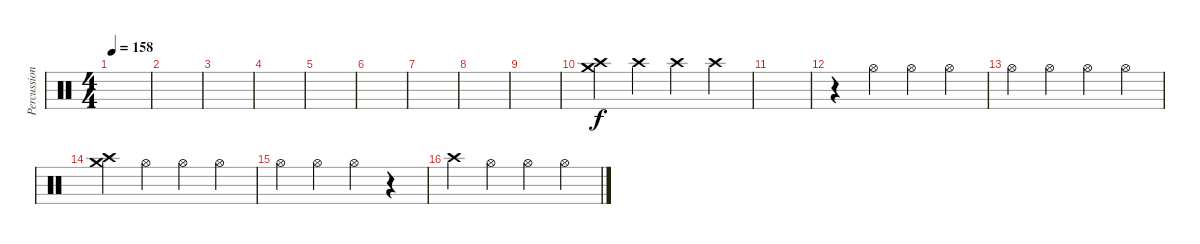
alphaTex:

\track ("Percussion2" "Percussion") {instrument percussion}
\staff {score}
\articulation defaults
\ts (4 4)
\tempo 158
\clef neutral
\ks c
|
|
|
|
|
|
|
|
|
("Crash medium (hit)" "Crash high (hit)").4 "Crash high (hit)".4 "Crash high (hit)".4 "Crash high (hit)".4 |
|
r.4 "Hi-Hat (open)".4 "Hi-Hat (open)".4 "Hi-Hat (open)".4 |
"Hi-Hat (open)".4 "Hi-Hat (open)".4 "Hi-Hat (open)".4 "Hi-Hat (open)".4 |
("Crash medium (hit)" "Crash high (hit)").4 "Hi-Hat (open)".4 "Hi-Hat (open)".4 "Hi-Hat (open)".4 |
"Hi-Hat (open)".4 "Hi-Hat (open)".4 "Hi-Hat (open)".4 r.4 |
"Crash high (hit)".4 "Hi-Hat (open)".4 "Hi-Hat (open)".4 "Hi-Hat (open)".4
